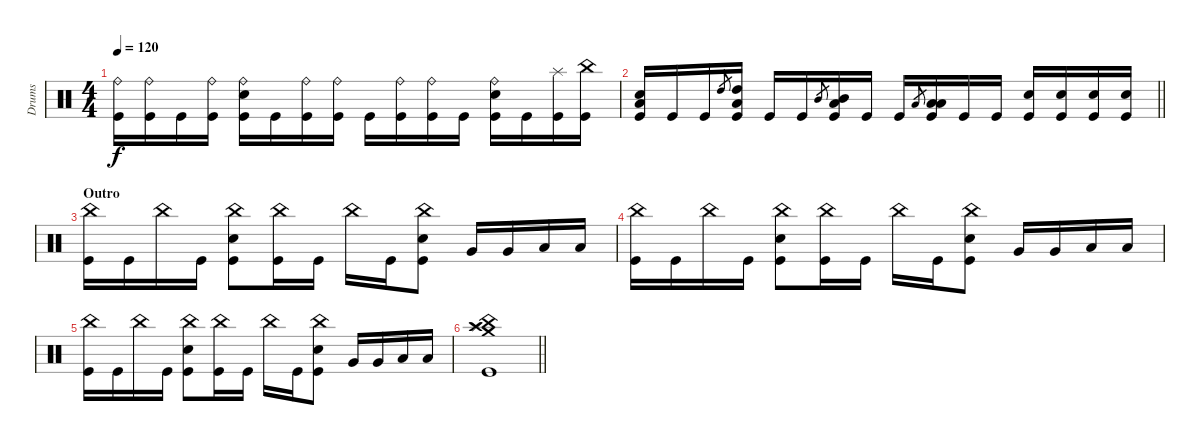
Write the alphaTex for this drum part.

\track ("Drums" "Drums") {instrument percussion}
\staff {score}
\articulation defaults
\ts (4 4)
\tempo 120
\clef neutral
\ks c
("Ride (bell)" "Kick (hit)").16{dy f} ("Ride (bell)" "Kick (hit)").16 "Kick (hit)".16 ("Ride (bell)" "Kick (hit)").16 ("Ride (bell)" "Snare (hit) 2" "Kick (hit)").16 "Kick (hit)".16 ("Ride (bell)" "Kick (hit)").16 ("Ride (bell)" "Kick (hit)").16 "Kick (hit)".16 ("Ride (bell)" "Kick (hit)").16 ("Ride (bell)" "Kick (hit)").16 "Kick (hit)".16 ("Ride (bell)" "Snare (hit) 2" "Kick (hit)").16 "Kick (hit)".16 ("Splash (hit)" "Kick (hit)").16 ("China (hit)" "Kick (hit)").16 |
\barLineRight lightlight
("Snare (hit) 2" "Low Floor Tom (hit)" "Kick (hit)").16 "Kick (hit)".16 "Kick (hit)".16 "High Tom (hit)".8{gr} ("High Tom (hit)" "Low Floor Tom (hit)" "Kick (hit)").16 "Kick (hit)".16 "Kick (hit)".16 "Mid Tom (hit)".8{gr} ("Mid Tom (hit)" "Low Floor Tom (hit)" "Kick (hit)").16 "Kick (hit)".16 "Kick (hit)".16 "Low Tom (hit)".8{gr} ("Low Tom (hit)" "Low Floor Tom (hit)" "Kick (hit)").16 "Kick (hit)".16 "Kick (hit)".16 ("Snare (hit) 2" "Kick (hit)").16 ("Snare (hit) 2" "Kick (hit)").16 ("Snare (hit) 2" "Kick (hit)").16 ("Snare (hit) 2" "Kick (hit)").16 |
\section ("" "Outro")
("China (hit)" "Kick (hit)").16 "Kick (hit)".16 "China (hit)".16 "Kick (hit)".16 ("China (hit)" "Snare (hit) 2" "Kick (hit)").8 ("China (hit)" "Kick (hit)").16 "Kick (hit)".16 "China (hit)".16 "Kick (hit)".16 ("China (hit)" "Snare (hit) 2" "Kick (hit)").8 "Very Low Tom (hit)".16 "Very Low Tom (hit)".16 "Low Floor Tom (hit)".16 "Low Floor Tom (hit)".16 |
("China (hit)" "Kick (hit)").16 "Kick (hit)".16 "China (hit)".16 "Kick (hit)".16 ("China (hit)" "Snare (hit) 2" "Kick (hit)").8 ("China (hit)" "Kick (hit)").16 "Kick (hit)".16 "China (hit)".16 "Kick (hit)".16 ("China (hit)" "Snare (hit) 2" "Kick (hit)").8 "Very Low Tom (hit)".16 "Very Low Tom (hit)".16 "Low Floor Tom (hit)".16 "Low Floor Tom (hit)".16 |
("China (hit)" "Kick (hit)").16 "Kick (hit)".16 "China (hit)".16 "Kick (hit)".16 ("China (hit)" "Snare (hit) 2" "Kick (hit)").8 ("China (hit)" "Kick (hit)").16 "Kick (hit)".16 "China (hit)".16 "Kick (hit)".16 ("China (hit)" "Snare (hit) 2" "Kick (hit)").8 "Very Low Tom (hit)".16 "Very Low Tom (hit)".16 "Low Floor Tom (hit)".16 "Low Floor Tom (hit)".16 |
\barLineRight lightlight
("China (hit)" "Crash high (hit)" "Crash medium (hit)" "Splash (hit)" "Kick (hit)").1
